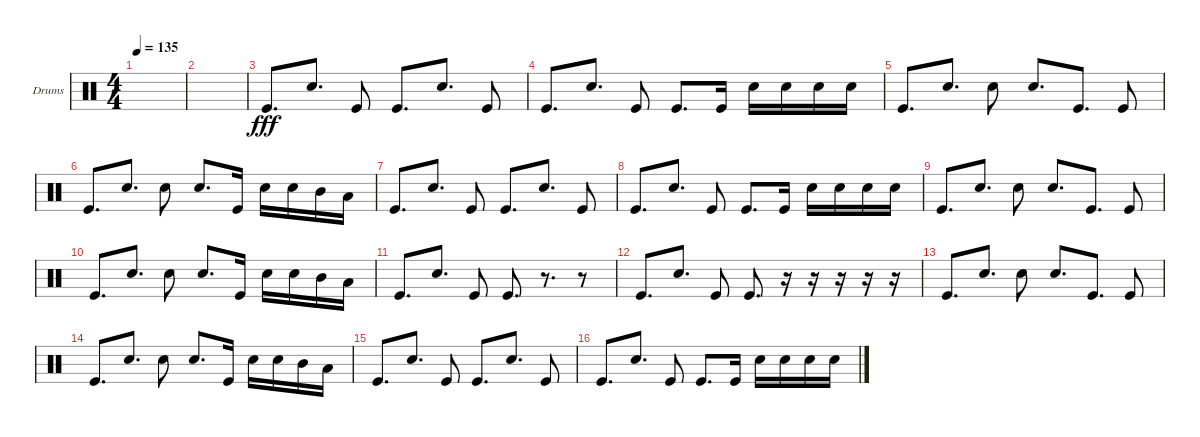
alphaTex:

\defaultSystemsLayout 4
\bracketExtendMode groupsimilarinstruments
\firstSystemTrackNameOrientation horizontal
\otherSystemsTrackNameOrientation horizontal
\track ("Matt Helders" "Drums") {instrument percussion}
\staff {score}
\articulation defaults
\ts (4 4)
\tempo 135
\clef neutral
\ks c
|
|
"Kick (hit)".8{d dy fff} "Snare (hit) 2".8{d} "Kick (hit)".8 "Kick (hit)".8{d} "Snare (hit) 2".8{d} "Kick (hit)".8 |
"Kick (hit)".8{d} "Snare (hit) 2".8{d} "Kick (hit)".8 "Kick (hit)".8{d} "Kick (hit)".16 "Snare (hit) 2".16 "Snare (hit) 2".16 "Snare (hit) 2".16 "Snare (hit) 2".16 |
"Kick (hit)".8{d} "Snare (hit) 2".8{d} "Snare (hit) 2".8 "Snare (hit) 2".8{d} "Kick (hit)".8{d} "Kick (hit)".8 |
"Kick (hit)".8{d} "Snare (hit) 2".8{d} "Snare (hit) 2".8 "Snare (hit) 2".8{d} "Kick (hit)".16 "Snare (hit) 2".16 "Snare (hit) 2".16 "Mid Tom (hit)".16 "Low Tom (hit)".16 |
"Kick (hit)".8{d} "Snare (hit) 2".8{d} "Kick (hit)".8 "Kick (hit)".8{d} "Snare (hit) 2".8{d} "Kick (hit)".8 |
"Kick (hit)".8{d} "Snare (hit) 2".8{d} "Kick (hit)".8 "Kick (hit)".8{d} "Kick (hit)".16 "Snare (hit) 2".16 "Snare (hit) 2".16 "Snare (hit) 2".16 "Snare (hit) 2".16 |
"Kick (hit)".8{d} "Snare (hit) 2".8{d} "Snare (hit) 2".8 "Snare (hit) 2".8{d} "Kick (hit)".8{d} "Kick (hit)".8 |
"Kick (hit)".8{d} "Snare (hit) 2".8{d} "Snare (hit) 2".8 "Snare (hit) 2".8{d} "Kick (hit)".16 "Snare (hit) 2".16 "Snare (hit) 2".16 "Mid Tom (hit)".16 "Low Tom (hit)".16 |
"Kick (hit)".8{d} "Snare (hit) 2".8{d} "Kick (hit)".8 "Kick (hit)".8{d} r.8{d} r.8 |
"Kick (hit)".8{d} "Snare (hit) 2".8{d} "Kick (hit)".8 "Kick (hit)".8{d} r.16 r.16 r.16 r.16 r.16 |
"Kick (hit)".8{d} "Snare (hit) 2".8{d} "Snare (hit) 2".8 "Snare (hit) 2".8{d} "Kick (hit)".8{d} "Kick (hit)".8 |
"Kick (hit)".8{d} "Snare (hit) 2".8{d} "Snare (hit) 2".8 "Snare (hit) 2".8{d} "Kick (hit)".16 "Snare (hit) 2".16 "Snare (hit) 2".16 "Mid Tom (hit)".16 "Low Tom (hit)".16 |
"Kick (hit)".8{d} "Snare (hit) 2".8{d} "Kick (hit)".8 "Kick (hit)".8{d} "Snare (hit) 2".8{d} "Kick (hit)".8 |
"Kick (hit)".8{d} "Snare (hit) 2".8{d} "Kick (hit)".8 "Kick (hit)".8{d} "Kick (hit)".16 "Snare (hit) 2".16 "Snare (hit) 2".16 "Snare (hit) 2".16 "Snare (hit) 2".16
